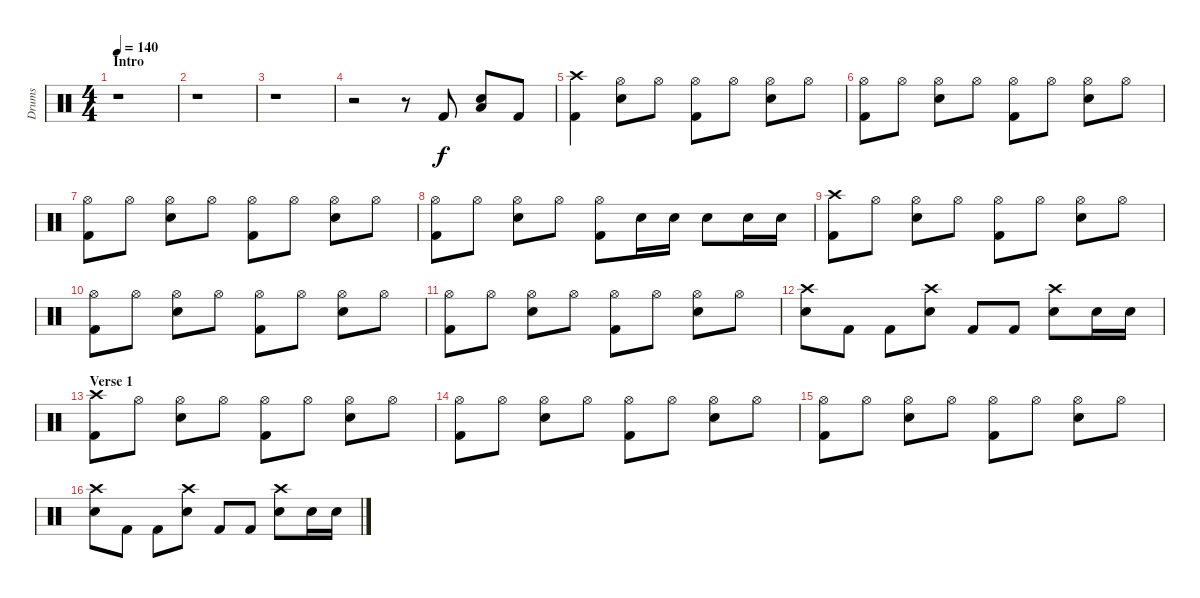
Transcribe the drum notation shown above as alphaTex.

\track ("Drums" "Drums") {instrument percussion}
\staff {score}
\articulation defaults
\ts (4 4)
\section ("" "Intro")
\tempo 140
\clef neutral
\ks c
r.1{dy f} |
r.1 |
r.1 |
r.2 r.8 "Kick (hit) 2".8 ("Electric Snare (hit)" "Low Floor Tom (hit)").8 "Kick (hit) 2".8 |
("Crash high (hit)" "Kick (hit) 2").4 ("Hi-Hat (open)" "Electric Snare (hit)").8 "Hi-Hat (open)".8 ("Hi-Hat (open)" "Kick (hit) 2").8 "Hi-Hat (open)".8 ("Hi-Hat (open)" "Electric Snare (hit)").8 "Hi-Hat (open)".8 |
("Hi-Hat (open)" "Kick (hit) 2").8 "Hi-Hat (open)".8 ("Hi-Hat (open)" "Electric Snare (hit)").8 "Hi-Hat (open)".8 ("Hi-Hat (open)" "Kick (hit) 2").8 "Hi-Hat (open)".8 ("Hi-Hat (open)" "Electric Snare (hit)").8 "Hi-Hat (open)".8 |
("Hi-Hat (open)" "Kick (hit) 2").8 "Hi-Hat (open)".8 ("Hi-Hat (open)" "Electric Snare (hit)").8 "Hi-Hat (open)".8 ("Hi-Hat (open)" "Kick (hit) 2").8 "Hi-Hat (open)".8 ("Hi-Hat (open)" "Electric Snare (hit)").8 "Hi-Hat (open)".8 |
("Hi-Hat (open)" "Kick (hit) 2").8 "Hi-Hat (open)".8 ("Hi-Hat (open)" "Electric Snare (hit)").8 "Hi-Hat (open)".8 ("Hi-Hat (open)" "Kick (hit) 2").8 "Electric Snare (hit)".16 "Electric Snare (hit)".16 "Electric Snare (hit)".8 "Electric Snare (hit)".16 "Electric Snare (hit)".16 |
("Crash high (hit)" "Kick (hit) 2").8 "Hi-Hat (open)".8 ("Hi-Hat (open)" "Electric Snare (hit)").8 "Hi-Hat (open)".8 ("Hi-Hat (open)" "Kick (hit) 2").8 "Hi-Hat (open)".8 ("Hi-Hat (open)" "Electric Snare (hit)").8 "Hi-Hat (open)".8 |
("Hi-Hat (open)" "Kick (hit) 2").8 "Hi-Hat (open)".8 ("Hi-Hat (open)" "Electric Snare (hit)").8 "Hi-Hat (open)".8 ("Hi-Hat (open)" "Kick (hit) 2").8 "Hi-Hat (open)".8 ("Hi-Hat (open)" "Electric Snare (hit)").8 "Hi-Hat (open)".8 |
("Hi-Hat (open)" "Kick (hit) 2").8 "Hi-Hat (open)".8 ("Hi-Hat (open)" "Electric Snare (hit)").8 "Hi-Hat (open)".8 ("Hi-Hat (open)" "Kick (hit) 2").8 "Hi-Hat (open)".8 ("Hi-Hat (open)" "Electric Snare (hit)").8 "Hi-Hat (open)".8 |
("Crash high (hit)" "Electric Snare (hit)").8 "Kick (hit) 2".8 "Kick (hit) 2".8 ("Crash high (hit)" "Electric Snare (hit)").8 "Kick (hit) 2".8 "Kick (hit) 2".8 ("Crash high (hit)" "Electric Snare (hit)").8 "Electric Snare (hit)".16 "Electric Snare (hit)".16 |
\section ("" "Verse 1")
("Crash high (hit)" "Kick (hit) 2").8 "Hi-Hat (open)".8 ("Hi-Hat (open)" "Electric Snare (hit)").8 "Hi-Hat (open)".8 ("Hi-Hat (open)" "Kick (hit) 2").8 "Hi-Hat (open)".8 ("Hi-Hat (open)" "Electric Snare (hit)").8 "Hi-Hat (open)".8 |
("Hi-Hat (open)" "Kick (hit) 2").8 "Hi-Hat (open)".8 ("Hi-Hat (open)" "Electric Snare (hit)").8 "Hi-Hat (open)".8 ("Hi-Hat (open)" "Kick (hit) 2").8 "Hi-Hat (open)".8 ("Hi-Hat (open)" "Electric Snare (hit)").8 "Hi-Hat (open)".8 |
("Hi-Hat (open)" "Kick (hit) 2").8 "Hi-Hat (open)".8 ("Hi-Hat (open)" "Electric Snare (hit)").8 "Hi-Hat (open)".8 ("Hi-Hat (open)" "Kick (hit) 2").8 "Hi-Hat (open)".8 ("Hi-Hat (open)" "Electric Snare (hit)").8 "Hi-Hat (open)".8 |
("Crash high (hit)" "Electric Snare (hit)").8 "Kick (hit) 2".8 "Kick (hit) 2".8 ("Crash high (hit)" "Electric Snare (hit)").8 "Kick (hit) 2".8 "Kick (hit) 2".8 ("Crash high (hit)" "Electric Snare (hit)").8 "Electric Snare (hit)".16 "Electric Snare (hit)".16
